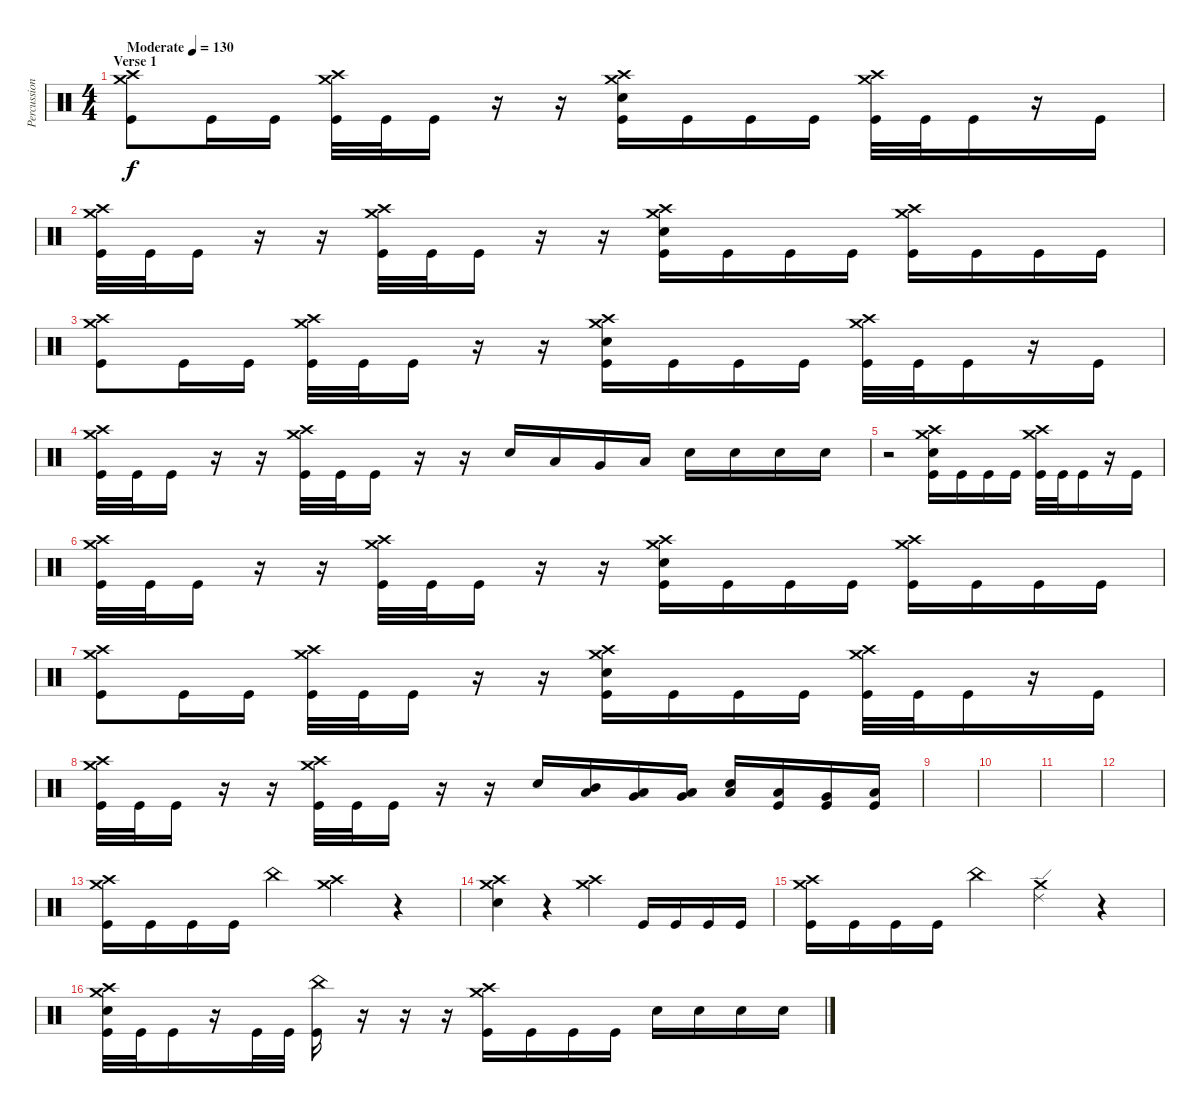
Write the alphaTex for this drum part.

\track ("Percussion (Approx.)" "Percussion") {instrument percussion}
\staff {score}
\articulation defaults
\ts (4 4)
\section ("" "Verse 1")
\tempo (130 "Moderate")
\clef neutral
\ks c
("Crash medium (hit)" "Crash high (hit)" "Kick (hit)").8{dy f} "Kick (hit)".16 "Kick (hit)".16 ("Crash medium (hit)" "Crash high (hit)" "Kick (hit)").32 "Kick (hit)".32 "Kick (hit)".16 r.16 r.16 ("Crash medium (hit)" "Crash high (hit)" "Electric Snare (hit)" "Kick (hit)").16 "Kick (hit)".16 "Kick (hit)".16 "Kick (hit)".16 ("Crash medium (hit)" "Crash high (hit)" "Kick (hit)").32 "Kick (hit)".32 "Kick (hit)".16 r.16 "Kick (hit)".16 |
("Crash medium (hit)" "Crash high (hit)" "Kick (hit)").32 "Kick (hit)".32 "Kick (hit)".16 r.16 r.16 ("Crash medium (hit)" "Crash high (hit)" "Kick (hit)").32 "Kick (hit)".32 "Kick (hit)".16 r.16 r.16 ("Crash medium (hit)" "Crash high (hit)" "Electric Snare (hit)" "Kick (hit)").16 "Kick (hit)".16 "Kick (hit)".16 "Kick (hit)".16 ("Crash medium (hit)" "Crash high (hit)" "Kick (hit)").16 "Kick (hit)".16 "Kick (hit)".16 "Kick (hit)".16 |
("Crash medium (hit)" "Crash high (hit)" "Kick (hit)").8 "Kick (hit)".16 "Kick (hit)".16 ("Crash medium (hit)" "Crash high (hit)" "Kick (hit)").32 "Kick (hit)".32 "Kick (hit)".16 r.16 r.16 ("Crash medium (hit)" "Crash high (hit)" "Electric Snare (hit)" "Kick (hit)").16 "Kick (hit)".16 "Kick (hit)".16 "Kick (hit)".16 ("Crash medium (hit)" "Crash high (hit)" "Kick (hit)").32 "Kick (hit)".32 "Kick (hit)".16 r.16 "Kick (hit)".16 |
("Crash medium (hit)" "Crash high (hit)" "Kick (hit)").32 "Kick (hit)".32 "Kick (hit)".16 r.16 r.16 ("Crash medium (hit)" "Crash high (hit)" "Kick (hit)").32 "Kick (hit)".32 "Kick (hit)".16 r.16 r.16 "Electric Snare (hit)".16 "Low Tom (hit)".16 "Very Low Tom (hit)".16 "Low Floor Tom (hit)".16 "Electric Snare (hit)".16 "Electric Snare (hit)".16 "Electric Snare (hit)".16 "Electric Snare (hit)".16 |
r.2 ("Crash medium (hit)" "Crash high (hit)" "Electric Snare (hit)" "Kick (hit)").16 "Kick (hit)".16 "Kick (hit)".16 "Kick (hit)".16 ("Crash medium (hit)" "Crash high (hit)" "Kick (hit)").32 "Kick (hit)".32 "Kick (hit)".16 r.16 "Kick (hit)".16 |
("Crash medium (hit)" "Crash high (hit)" "Kick (hit)").32 "Kick (hit)".32 "Kick (hit)".16 r.16 r.16 ("Crash medium (hit)" "Crash high (hit)" "Kick (hit)").32 "Kick (hit)".32 "Kick (hit)".16 r.16 r.16 ("Crash medium (hit)" "Crash high (hit)" "Electric Snare (hit)" "Kick (hit)").16 "Kick (hit)".16 "Kick (hit)".16 "Kick (hit)".16 ("Crash medium (hit)" "Crash high (hit)" "Kick (hit)").16 "Kick (hit)".16 "Kick (hit)".16 "Kick (hit)".16 |
("Crash medium (hit)" "Crash high (hit)" "Kick (hit)").8 "Kick (hit)".16 "Kick (hit)".16 ("Crash medium (hit)" "Crash high (hit)" "Kick (hit)").32 "Kick (hit)".32 "Kick (hit)".16 r.16 r.16 ("Crash medium (hit)" "Crash high (hit)" "Electric Snare (hit)" "Kick (hit)").16 "Kick (hit)".16 "Kick (hit)".16 "Kick (hit)".16 ("Crash medium (hit)" "Crash high (hit)" "Kick (hit)").32 "Kick (hit)".32 "Kick (hit)".16 r.16 "Kick (hit)".16 |
("Crash medium (hit)" "Crash high (hit)" "Kick (hit)").32 "Kick (hit)".32 "Kick (hit)".16 r.16 r.16 ("Crash medium (hit)" "Crash high (hit)" "Kick (hit)").32 "Kick (hit)".32 "Kick (hit)".16 r.16 r.16 "Electric Snare (hit)".16 ("Mid Tom (hit)" "Low Tom (hit)").16 ("Low Tom (hit)" "Very Low Tom (hit)").16 ("Very Low Tom (hit)" "Low Floor Tom (hit)").16 ("Low Floor Tom (hit)" "Electric Snare (hit)").16 ("Low Tom (hit)" "Kick (hit)").16 ("Very Low Tom (hit)" "Kick (hit)").16 ("Low Floor Tom (hit)" "Kick (hit)").16 |
|
|
|
|
("Crash medium (hit)" "Crash high (hit)" "Kick (hit)").16 "Kick (hit)".16 "Kick (hit)".16 "Kick (hit)".16 "China (hit)".4 ("Crash medium (hit)" "Crash high (hit)").4 r.4 |
("Crash medium (hit)" "Crash high (hit)" "Electric Snare (hit)").4 r.4 ("Crash medium (hit)" "Crash high (hit)").4 "Kick (hit)".16 "Kick (hit)".16 "Kick (hit)".16 "Kick (hit)".16 |
("Crash medium (hit)" "Crash high (hit)" "Kick (hit)").16 "Kick (hit)".16 "Kick (hit)".16 "Kick (hit)".16 "China (hit)".4 ("Crash medium (hit)" "Ride (edge) 2").4 r.4 |
("Crash medium (hit)" "Crash high (hit)" "Electric Snare (hit)" "Kick (hit)").32 "Kick (hit)".32 "Kick (hit)".16 r.16 "Kick (hit)".32 "Kick (hit)".32 ("China (hit)" "Kick (hit)").16 r.16 r.16 r.16 ("Crash medium (hit)" "Crash high (hit)" "Kick (hit)").16 "Kick (hit)".16 "Kick (hit)".16 "Kick (hit)".16 "Electric Snare (hit)".16 "Electric Snare (hit)".16 "Electric Snare (hit)".16 "Electric Snare (hit)".16
